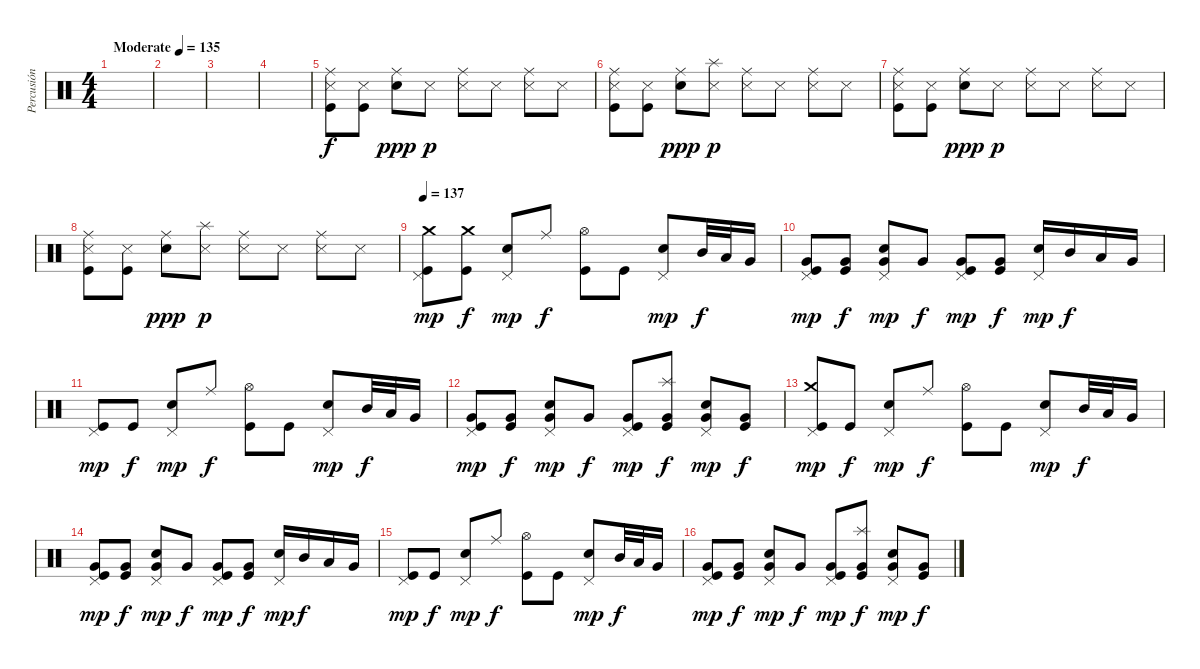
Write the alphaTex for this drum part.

\track ("Percusión" "Percusión") {instrument percussion}
\staff {score}
\articulation defaults
\ts (4 4)
\tempo (135 "Moderate")
\clef neutral
\ks c
|
|
|
|
("Ride (middle)" "Snare (side stick) 3" "Kick (hit)").8 ("Snare (side stick) 3" "Kick (hit)").8 ("Ride (middle)" "Snare (hit) 2").8{dy ppp} "Snare (side stick) 3".8{dy p} ("Ride (middle)" "Snare (side stick) 3").8 "Snare (side stick) 3".8 ("Ride (middle)" "Snare (side stick) 3").8 "Snare (side stick) 3".8 |
("Ride (middle)" "Snare (side stick) 3" "Kick (hit)").8 ("Snare (side stick) 3" "Kick (hit)").8 ("Ride (middle)" "Snare (hit) 2").8{dy ppp} ("Splash (hit)" "Snare (side stick) 3").8{dy p} ("Ride (middle)" "Snare (side stick) 3").8 "Snare (side stick) 3".8 ("Ride (middle)" "Snare (side stick) 3").8 "Snare (side stick) 3".8 |
("Ride (middle)" "Snare (side stick) 3" "Kick (hit)").8 ("Snare (side stick) 3" "Kick (hit)").8 ("Ride (middle)" "Snare (hit) 2").8{dy ppp} "Snare (side stick) 3".8{dy p} ("Ride (middle)" "Snare (side stick) 3").8 "Snare (side stick) 3".8 ("Ride (middle)" "Snare (side stick) 3").8 "Snare (side stick) 3".8 |
("Ride (middle)" "Snare (side stick) 3" "Kick (hit)").8 ("Snare (side stick) 3" "Kick (hit)").8 ("Ride (middle)" "Snare (hit) 2").8{dy ppp} ("Splash (hit)" "Snare (side stick) 3").8{dy p} ("Ride (middle)" "Snare (side stick) 3").8 "Snare (side stick) 3".8 ("Ride (middle)" "Snare (side stick) 3").8 "Snare (side stick) 3".8 |
\tempo 137
("Crash medium (hit)" "Pedal Hi-Hat (hit)" "Kick (hit)").8{dy mp} ("Crash medium (hit)" "Kick (hit)").8{dy f} ("Pedal Hi-Hat (hit)" "Snare (hit) 2").8{dy mp} "Ride (middle)".8{dy f} ("Hi-Hat (open)" "Kick (hit)").8 "Kick (hit)".8 ("Pedal Hi-Hat (hit)" "Snare (hit) 2").8{dy mp} "Mid Tom (hit)".32{dy f} "Low Tom (hit)".32 "Very Low Tom (hit)".16 |
("Pedal Hi-Hat (hit)" "Very Low Tom (hit)" "Kick (hit)").8{dy mp} ("Very Low Tom (hit)" "Kick (hit)").8{dy f} ("Pedal Hi-Hat (hit)" "Very Low Tom (hit)" "Snare (hit) 2").8{dy mp} "Very Low Tom (hit)".8{dy f} ("Pedal Hi-Hat (hit)" "Very Low Tom (hit)" "Kick (hit)").8{dy mp} ("Very Low Tom (hit)" "Kick (hit)").8{dy f} ("Pedal Hi-Hat (hit)" "Snare (hit) 2").16{dy mp} "Mid Tom (hit)".16{dy f} "Low Tom (hit)".16 "Very Low Tom (hit)".16 |
("Pedal Hi-Hat (hit)" "Kick (hit)").8{dy mp} "Kick (hit)".8{dy f} ("Pedal Hi-Hat (hit)" "Snare (hit) 2").8{dy mp} "Ride (middle)".8{dy f} ("Hi-Hat (open)" "Kick (hit)").8 "Kick (hit)".8 ("Pedal Hi-Hat (hit)" "Snare (hit) 2").8{dy mp} "Mid Tom (hit)".32{dy f} "Low Tom (hit)".32 "Very Low Tom (hit)".16 |
("Pedal Hi-Hat (hit)" "Very Low Tom (hit)" "Kick (hit)").8{dy mp} ("Very Low Tom (hit)" "Kick (hit)").8{dy f} ("Pedal Hi-Hat (hit)" "Very Low Tom (hit)" "Snare (hit) 2").8{dy mp} "Very Low Tom (hit)".8{dy f} ("Pedal Hi-Hat (hit)" "Very Low Tom (hit)" "Kick (hit)").8{dy mp} ("Splash (hit)" "Very Low Tom (hit)" "Kick (hit)").8{dy f} ("Pedal Hi-Hat (hit)" "Very Low Tom (hit)" "Snare (hit) 2").8{dy mp} ("Very Low Tom (hit)" "Kick (hit)").8{dy f} |
("Crash medium (hit)" "Pedal Hi-Hat (hit)" "Kick (hit)").8{dy mp} "Kick (hit)".8{dy f} ("Pedal Hi-Hat (hit)" "Snare (hit) 2").8{dy mp} "Ride (middle)".8{dy f} ("Hi-Hat (open)" "Kick (hit)").8 "Kick (hit)".8 ("Pedal Hi-Hat (hit)" "Snare (hit) 2").8{dy mp} "Mid Tom (hit)".32{dy f} "Low Tom (hit)".32 "Very Low Tom (hit)".16 |
("Pedal Hi-Hat (hit)" "Very Low Tom (hit)" "Kick (hit)").8{dy mp} ("Very Low Tom (hit)" "Kick (hit)").8{dy f} ("Pedal Hi-Hat (hit)" "Very Low Tom (hit)" "Snare (hit) 2").8{dy mp} "Very Low Tom (hit)".8{dy f} ("Pedal Hi-Hat (hit)" "Very Low Tom (hit)" "Kick (hit)").8{dy mp} ("Very Low Tom (hit)" "Kick (hit)").8{dy f} ("Pedal Hi-Hat (hit)" "Snare (hit) 2").16{dy mp} "Mid Tom (hit)".16{dy f} "Low Tom (hit)".16 "Very Low Tom (hit)".16 |
("Pedal Hi-Hat (hit)" "Kick (hit)").8{dy mp} "Kick (hit)".8{dy f} ("Pedal Hi-Hat (hit)" "Snare (hit) 2").8{dy mp} "Ride (middle)".8{dy f} ("Hi-Hat (open)" "Kick (hit)").8 "Kick (hit)".8 ("Pedal Hi-Hat (hit)" "Snare (hit) 2").8{dy mp} "Mid Tom (hit)".32{dy f} "Low Tom (hit)".32 "Very Low Tom (hit)".16 |
("Pedal Hi-Hat (hit)" "Very Low Tom (hit)" "Kick (hit)").8{dy mp} ("Very Low Tom (hit)" "Kick (hit)").8{dy f} ("Pedal Hi-Hat (hit)" "Very Low Tom (hit)" "Snare (hit) 2").8{dy mp} "Very Low Tom (hit)".8{dy f} ("Pedal Hi-Hat (hit)" "Very Low Tom (hit)" "Kick (hit)").8{dy mp} ("Splash (hit)" "Very Low Tom (hit)" "Kick (hit)").8{dy f} ("Pedal Hi-Hat (hit)" "Very Low Tom (hit)" "Snare (hit) 2").8{dy mp} ("Very Low Tom (hit)" "Kick (hit)").8{dy f}
